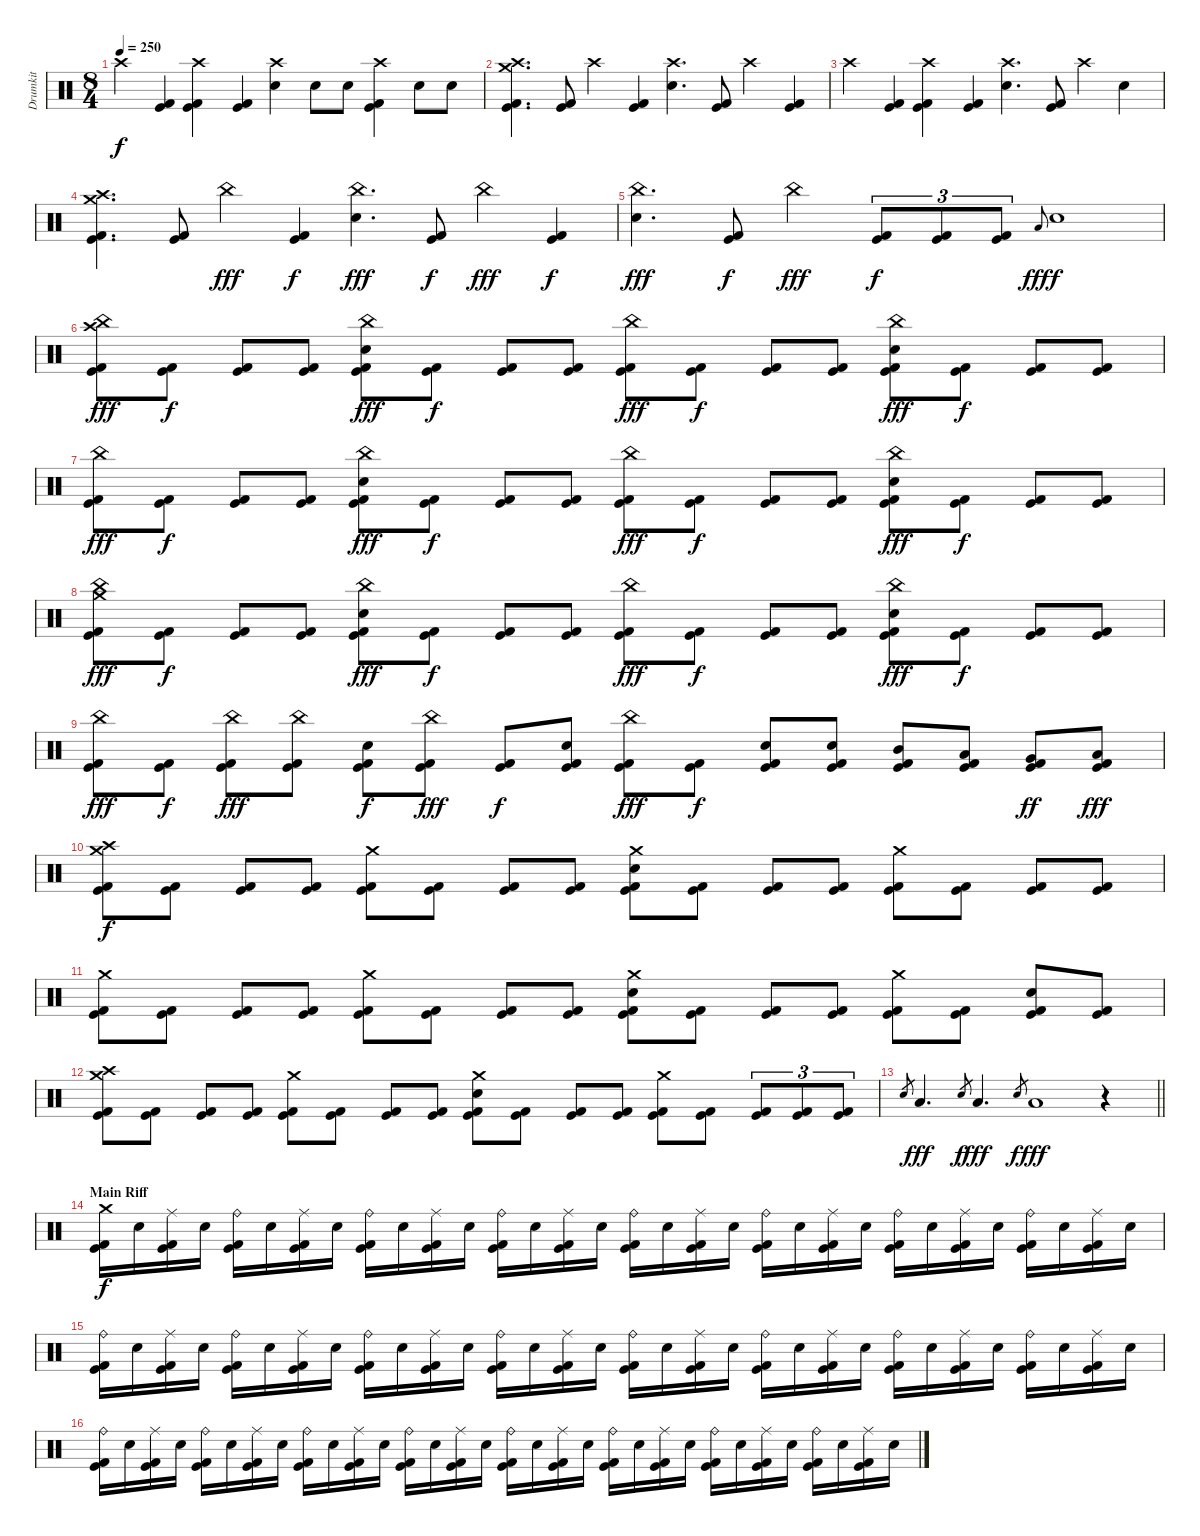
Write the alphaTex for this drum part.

\track ("Drumkit" "Drumkit") {instrument percussion}
\staff {score}
\articulation defaults
\ts (8 4)
\tempo 250
\clef neutral
\ks c "Crash high (hit)".4{dy f}
("Kick (hit)" "Kick (hit) 2").4 ("Crash high (hit)" "Kick (hit)" "Kick (hit) 2").4 ("Kick (hit)" "Kick (hit) 2").4 ("Crash high (hit)" "Electric Snare (hit)").4 "Electric Snare (hit)".8 "Electric Snare (hit)".8 ("Crash high (hit)" "Kick (hit)" "Kick (hit) 2").4 "Electric Snare (hit)".8 "Electric Snare (hit)".8 |
("Crash high (hit)" "Crash medium (hit)" "Kick (hit)" "Kick (hit) 2").4{d} ("Kick (hit)" "Kick (hit) 2").8 "Crash high (hit)".4 ("Kick (hit)" "Kick (hit) 2").4 ("Crash high (hit)" "Electric Snare (hit)").4{d} ("Kick (hit)" "Kick (hit) 2").8 "Crash high (hit)".4 ("Kick (hit)" "Kick (hit) 2").4 |
"Crash high (hit)".4 ("Kick (hit)" "Kick (hit) 2").4 ("Crash high (hit)" "Kick (hit)" "Kick (hit) 2").4 ("Kick (hit)" "Kick (hit) 2").4 ("Crash high (hit)" "Electric Snare (hit)").4{d} ("Kick (hit)" "Kick (hit) 2").8 "Crash high (hit)".4 "Electric Snare (hit)".4 |
("Crash high (hit)" "Crash medium (hit)" "Kick (hit)" "Kick (hit) 2").4{d} ("Kick (hit)" "Kick (hit) 2").8 "China (hit)".4{dy fff} ("Kick (hit)" "Kick (hit) 2").4{dy f} ("China (hit)" "Electric Snare (hit)").4{d dy fff} ("Kick (hit)" "Kick (hit) 2").8{dy f} "China (hit)".4{dy fff} ("Kick (hit)" "Kick (hit) 2").4{dy f} |
("China (hit)" "Electric Snare (hit)").4{d dy fff} ("Kick (hit)" "Kick (hit) 2").8{dy f} "China (hit)".4{dy fff} ("Kick (hit)" "Kick (hit) 2").8{tu (3 2) dy f} ("Kick (hit)" "Kick (hit) 2").8{tu (3 2)} ("Kick (hit)" "Kick (hit) 2").8{tu (3 2)} "Low Floor Tom (hit)".8{gr onbeat dy fff} "Electric Snare (hit)".1{dy f} |
("Crash high (hit)" "China (hit)" "Kick (hit)" "Kick (hit) 2").8{dy fff} ("Kick (hit)" "Kick (hit) 2").8{dy f} ("Kick (hit)" "Kick (hit) 2").8 ("Kick (hit)" "Kick (hit) 2").8 ("China (hit)" "Electric Snare (hit)" "Kick (hit)" "Kick (hit) 2").8{dy fff} ("Kick (hit)" "Kick (hit) 2").8{dy f} ("Kick (hit)" "Kick (hit) 2").8 ("Kick (hit)" "Kick (hit) 2").8 ("China (hit)" "Kick (hit)" "Kick (hit) 2").8{dy fff} ("Kick (hit)" "Kick (hit) 2").8{dy f} ("Kick (hit)" "Kick (hit) 2").8 ("Kick (hit)" "Kick (hit) 2").8 ("China (hit)" "Electric Snare (hit)" "Kick (hit)" "Kick (hit) 2").8{dy fff} ("Kick (hit)" "Kick (hit) 2").8{dy f} ("Kick (hit)" "Kick (hit) 2").8 ("Kick (hit)" "Kick (hit) 2").8 |
("China (hit)" "Kick (hit)" "Kick (hit) 2").8{dy fff} ("Kick (hit)" "Kick (hit) 2").8{dy f} ("Kick (hit)" "Kick (hit) 2").8 ("Kick (hit)" "Kick (hit) 2").8 ("China (hit)" "Electric Snare (hit)" "Kick (hit)" "Kick (hit) 2").8{dy fff} ("Kick (hit)" "Kick (hit) 2").8{dy f} ("Kick (hit)" "Kick (hit) 2").8 ("Kick (hit)" "Kick (hit) 2").8 ("China (hit)" "Kick (hit)" "Kick (hit) 2").8{dy fff} ("Kick (hit)" "Kick (hit) 2").8{dy f} ("Kick (hit)" "Kick (hit) 2").8 ("Kick (hit)" "Kick (hit) 2").8 ("China (hit)" "Electric Snare (hit)" "Kick (hit)" "Kick (hit) 2").8{dy fff} ("Kick (hit)" "Kick (hit) 2").8{dy f} ("Kick (hit)" "Kick (hit) 2").8 ("Kick (hit)" "Kick (hit) 2").8 |
("Crash medium (hit)" "China (hit)" "Kick (hit)" "Kick (hit) 2").8{dy fff} ("Kick (hit)" "Kick (hit) 2").8{dy f} ("Kick (hit)" "Kick (hit) 2").8 ("Kick (hit)" "Kick (hit) 2").8 ("China (hit)" "Electric Snare (hit)" "Kick (hit)" "Kick (hit) 2").8{dy fff} ("Kick (hit)" "Kick (hit) 2").8{dy f} ("Kick (hit)" "Kick (hit) 2").8 ("Kick (hit)" "Kick (hit) 2").8 ("China (hit)" "Kick (hit)" "Kick (hit) 2").8{dy fff} ("Kick (hit)" "Kick (hit) 2").8{dy f} ("Kick (hit)" "Kick (hit) 2").8 ("Kick (hit)" "Kick (hit) 2").8 ("China (hit)" "Electric Snare (hit)" "Kick (hit)" "Kick (hit) 2").8{dy fff} ("Kick (hit)" "Kick (hit) 2").8{dy f} ("Kick (hit)" "Kick (hit) 2").8 ("Kick (hit)" "Kick (hit) 2").8 |
("China (hit)" "Kick (hit)" "Kick (hit) 2").8{dy fff} ("Kick (hit)" "Kick (hit) 2").8{dy f} ("China (hit)" "Kick (hit)" "Kick (hit) 2").8{dy fff} ("China (hit)" "Kick (hit)" "Kick (hit) 2").8 ("Electric Snare (hit)" "Kick (hit)" "Kick (hit) 2").8{dy f} ("China (hit)" "Kick (hit)" "Kick (hit) 2").8{dy fff} ("Kick (hit)" "Kick (hit) 2").8{dy f} ("Electric Snare (hit)" "Kick (hit)" "Kick (hit) 2").8 ("China (hit)" "Kick (hit)" "Kick (hit) 2").8{dy fff} ("Kick (hit)" "Kick (hit) 2").8{dy f} ("Electric Snare (hit)" "Kick (hit)" "Kick (hit) 2").8 ("Electric Snare (hit)" "Kick (hit)" "Kick (hit) 2").8 ("Mid Tom (hit)" "Kick (hit)" "Kick (hit) 2").8 ("Low Tom (hit)" "Kick (hit)" "Kick (hit) 2").8 ("Very Low Tom (hit)" "Kick (hit)" "Kick (hit) 2").8{dy ff} ("Low Floor Tom (hit)" "Kick (hit)" "Kick (hit) 2").8{dy fff} |
("Crash high (hit)" "Crash medium (hit)" "Kick (hit)" "Kick (hit) 2").8{dy f} ("Kick (hit)" "Kick (hit) 2").8 ("Kick (hit)" "Kick (hit) 2").8 ("Kick (hit)" "Kick (hit) 2").8 ("Crash medium (hit)" "Kick (hit)" "Kick (hit) 2").8 ("Kick (hit)" "Kick (hit) 2").8 ("Kick (hit)" "Kick (hit) 2").8 ("Kick (hit)" "Kick (hit) 2").8 ("Crash medium (hit)" "Electric Snare (hit)" "Kick (hit)" "Kick (hit) 2").8 ("Kick (hit)" "Kick (hit) 2").8 ("Kick (hit)" "Kick (hit) 2").8 ("Kick (hit)" "Kick (hit) 2").8 ("Crash medium (hit)" "Kick (hit)" "Kick (hit) 2").8 ("Kick (hit)" "Kick (hit) 2").8 ("Kick (hit)" "Kick (hit) 2").8 ("Kick (hit)" "Kick (hit) 2").8 |
("Crash medium (hit)" "Kick (hit)" "Kick (hit) 2").8 ("Kick (hit)" "Kick (hit) 2").8 ("Kick (hit)" "Kick (hit) 2").8 ("Kick (hit)" "Kick (hit) 2").8 ("Crash medium (hit)" "Kick (hit)" "Kick (hit) 2").8 ("Kick (hit)" "Kick (hit) 2").8 ("Kick (hit)" "Kick (hit) 2").8 ("Kick (hit)" "Kick (hit) 2").8 ("Crash medium (hit)" "Electric Snare (hit)" "Kick (hit)" "Kick (hit) 2").8 ("Kick (hit)" "Kick (hit) 2").8 ("Kick (hit)" "Kick (hit) 2").8 ("Kick (hit)" "Kick (hit) 2").8 ("Crash medium (hit)" "Kick (hit)" "Kick (hit) 2").8 ("Kick (hit)" "Kick (hit) 2").8 ("Electric Snare (hit)" "Kick (hit)" "Kick (hit) 2").8 ("Kick (hit)" "Kick (hit) 2").8 |
("Crash high (hit)" "Crash medium (hit)" "Kick (hit)" "Kick (hit) 2").8 ("Kick (hit)" "Kick (hit) 2").8 ("Kick (hit)" "Kick (hit) 2").8 ("Kick (hit)" "Kick (hit) 2").8 ("Crash medium (hit)" "Kick (hit)" "Kick (hit) 2").8 ("Kick (hit)" "Kick (hit) 2").8 ("Kick (hit)" "Kick (hit) 2").8 ("Kick (hit)" "Kick (hit) 2").8 ("Crash medium (hit)" "Electric Snare (hit)" "Kick (hit)" "Kick (hit) 2").8 ("Kick (hit)" "Kick (hit) 2").8 ("Kick (hit)" "Kick (hit) 2").8 ("Kick (hit)" "Kick (hit) 2").8 ("Crash medium (hit)" "Kick (hit)" "Kick (hit) 2").8 ("Kick (hit)" "Kick (hit) 2").8 ("Kick (hit)" "Kick (hit) 2").8{tu (3 2)} ("Kick (hit)" "Kick (hit) 2").8{tu (3 2)} ("Kick (hit)" "Kick (hit) 2").8{tu (3 2)} |
\barLineRight lightlight "Electric Snare (hit)".8{gr} "Low Floor Tom (hit)".4{d dy fff} "Electric Snare (hit)".8{gr dy f} "Low Floor Tom (hit)".4{d dy fff} "Electric Snare (hit)".8{gr dy f} "Low Floor Tom (hit)".1{dy fff}
r.4 |
\section ("" "Main Riff")
("Crash medium (hit)" "Kick (hit)" "Kick (hit) 2").16{dy f} "Electric Snare (hit)".16 ("Ride (middle)" "Kick (hit)" "Kick (hit) 2").16 "Electric Snare (hit)".16 ("Ride (bell)" "Kick (hit)" "Kick (hit) 2").16 "Electric Snare (hit)".16 ("Ride (middle)" "Kick (hit)" "Kick (hit) 2").16 "Electric Snare (hit)".16 ("Ride (bell)" "Kick (hit)" "Kick (hit) 2").16 "Electric Snare (hit)".16 ("Ride (middle)" "Kick (hit)" "Kick (hit) 2").16 "Electric Snare (hit)".16 ("Ride (bell)" "Kick (hit)" "Kick (hit) 2").16 "Electric Snare (hit)".16 ("Ride (middle)" "Kick (hit)" "Kick (hit) 2").16 "Electric Snare (hit)".16 ("Ride (bell)" "Kick (hit)" "Kick (hit) 2").16 "Electric Snare (hit)".16 ("Ride (middle)" "Kick (hit)" "Kick (hit) 2").16 "Electric Snare (hit)".16 ("Ride (bell)" "Kick (hit)" "Kick (hit) 2").16 "Electric Snare (hit)".16 ("Ride (middle)" "Kick (hit)" "Kick (hit) 2").16 "Electric Snare (hit)".16 ("Ride (bell)" "Kick (hit)" "Kick (hit) 2").16 "Electric Snare (hit)".16 ("Ride (middle)" "Kick (hit)" "Kick (hit) 2").16 "Electric Snare (hit)".16 ("Ride (bell)" "Kick (hit)" "Kick (hit) 2").16 "Electric Snare (hit)".16 ("Ride (middle)" "Kick (hit)" "Kick (hit) 2").16 "Electric Snare (hit)".16 |
("Ride (bell)" "Kick (hit)" "Kick (hit) 2").16 "Electric Snare (hit)".16 ("Ride (middle)" "Kick (hit)" "Kick (hit) 2").16 "Electric Snare (hit)".16 ("Ride (bell)" "Kick (hit)" "Kick (hit) 2").16 "Electric Snare (hit)".16 ("Ride (middle)" "Kick (hit)" "Kick (hit) 2").16 "Electric Snare (hit)".16 ("Ride (bell)" "Kick (hit)" "Kick (hit) 2").16 "Electric Snare (hit)".16 ("Ride (middle)" "Kick (hit)" "Kick (hit) 2").16 "Electric Snare (hit)".16 ("Ride (bell)" "Kick (hit)" "Kick (hit) 2").16 "Electric Snare (hit)".16 ("Ride (middle)" "Kick (hit)" "Kick (hit) 2").16 "Electric Snare (hit)".16 ("Ride (bell)" "Kick (hit)" "Kick (hit) 2").16 "Electric Snare (hit)".16 ("Ride (middle)" "Kick (hit)" "Kick (hit) 2").16 "Electric Snare (hit)".16 ("Ride (bell)" "Kick (hit)" "Kick (hit) 2").16 "Electric Snare (hit)".16 ("Ride (middle)" "Kick (hit)" "Kick (hit) 2").16 "Electric Snare (hit)".16 ("Ride (bell)" "Kick (hit)" "Kick (hit) 2").16 "Electric Snare (hit)".16 ("Ride (middle)" "Kick (hit)" "Kick (hit) 2").16 "Electric Snare (hit)".16 ("Ride (bell)" "Kick (hit)" "Kick (hit) 2").16 "Electric Snare (hit)".16 ("Ride (middle)" "Kick (hit)" "Kick (hit) 2").16 "Electric Snare (hit)".16 |
("Ride (bell)" "Kick (hit)" "Kick (hit) 2").16 "Electric Snare (hit)".16 ("Ride (middle)" "Kick (hit)" "Kick (hit) 2").16 "Electric Snare (hit)".16 ("Ride (bell)" "Kick (hit)" "Kick (hit) 2").16 "Electric Snare (hit)".16 ("Ride (middle)" "Kick (hit)" "Kick (hit) 2").16 "Electric Snare (hit)".16 ("Ride (bell)" "Kick (hit)" "Kick (hit) 2").16 "Electric Snare (hit)".16 ("Ride (middle)" "Kick (hit)" "Kick (hit) 2").16 "Electric Snare (hit)".16 ("Ride (bell)" "Kick (hit)" "Kick (hit) 2").16 "Electric Snare (hit)".16 ("Ride (middle)" "Kick (hit)" "Kick (hit) 2").16 "Electric Snare (hit)".16 ("Ride (bell)" "Kick (hit)" "Kick (hit) 2").16 "Electric Snare (hit)".16 ("Ride (middle)" "Kick (hit)" "Kick (hit) 2").16 "Electric Snare (hit)".16 ("Ride (bell)" "Kick (hit)" "Kick (hit) 2").16 "Electric Snare (hit)".16 ("Ride (middle)" "Kick (hit)" "Kick (hit) 2").16 "Electric Snare (hit)".16 ("Ride (bell)" "Kick (hit)" "Kick (hit) 2").16 "Electric Snare (hit)".16 ("Ride (middle)" "Kick (hit)" "Kick (hit) 2").16 "Electric Snare (hit)".16 ("Ride (bell)" "Kick (hit)" "Kick (hit) 2").16 "Electric Snare (hit)".16 ("Ride (middle)" "Kick (hit)" "Kick (hit) 2").16 "Electric Snare (hit)".16
